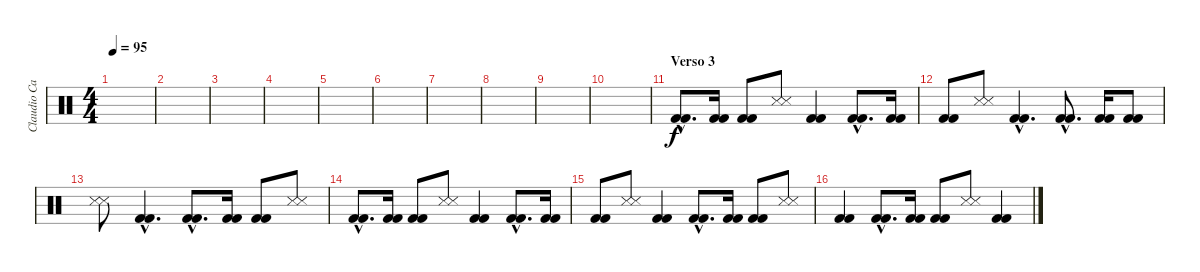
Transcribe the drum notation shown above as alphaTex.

\track ("Claudio Cardaci (Percusión)" "Claudio Ca") {instrument percussion}
\staff {score}
\articulation defaults
\ts (4 4)
\tempo 95
\clef neutral
\ks c
|
|
|
|
|
|
|
|
|
|
\section ("" "Verso 3")
("Kick (hit) 2"{hac} "Kick (hit) 2"{hac}).8{d} ("Kick (hit) 2" "Kick (hit) 2").16 ("Kick (hit) 2" "Kick (hit) 2").8 ("Snare (side stick) 3" "Snare (side stick) 3").8 ("Kick (hit) 2" "Kick (hit) 2").4 ("Kick (hit) 2"{hac} "Kick (hit) 2"{hac}).8{d} ("Kick (hit) 2" "Kick (hit) 2").16 |
("Kick (hit) 2" "Kick (hit) 2").8 ("Snare (side stick) 3" "Snare (side stick) 3").8 ("Kick (hit) 2"{hac} "Kick (hit) 2"{hac}).4{d} ("Kick (hit) 2"{hac} "Kick (hit) 2"{hac}).8{d} ("Kick (hit) 2" "Kick (hit) 2").16 ("Kick (hit) 2" "Kick (hit) 2").8 |
("Snare (side stick) 3" "Snare (side stick) 3").8 ("Kick (hit) 2"{hac} "Kick (hit) 2"{hac}).4{d} ("Kick (hit) 2"{hac} "Kick (hit) 2"{hac}).8{d} ("Kick (hit) 2" "Kick (hit) 2").16 ("Kick (hit) 2" "Kick (hit) 2").8 ("Snare (side stick) 3" "Snare (side stick) 3").8 |
("Kick (hit) 2"{hac} "Kick (hit) 2"{hac}).8{d} ("Kick (hit) 2" "Kick (hit) 2").16 ("Kick (hit) 2" "Kick (hit) 2").8 ("Snare (side stick) 3" "Snare (side stick) 3").8 ("Kick (hit) 2" "Kick (hit) 2").4 ("Kick (hit) 2"{hac} "Kick (hit) 2"{hac}).8{d} ("Kick (hit) 2" "Kick (hit) 2").16 |
("Kick (hit) 2" "Kick (hit) 2").8 ("Snare (side stick) 3" "Snare (side stick) 3").8 ("Kick (hit) 2" "Kick (hit) 2").4 ("Kick (hit) 2"{hac} "Kick (hit) 2"{hac}).8{d} ("Kick (hit) 2" "Kick (hit) 2").16 ("Kick (hit) 2" "Kick (hit) 2").8 ("Snare (side stick) 3" "Snare (side stick) 3").8 |
("Kick (hit) 2" "Kick (hit) 2").4 ("Kick (hit) 2"{hac} "Kick (hit) 2"{hac}).8{d} ("Kick (hit) 2" "Kick (hit) 2").16 ("Kick (hit) 2" "Kick (hit) 2").8 ("Snare (side stick) 3" "Snare (side stick) 3").8 ("Kick (hit) 2" "Kick (hit) 2").4
